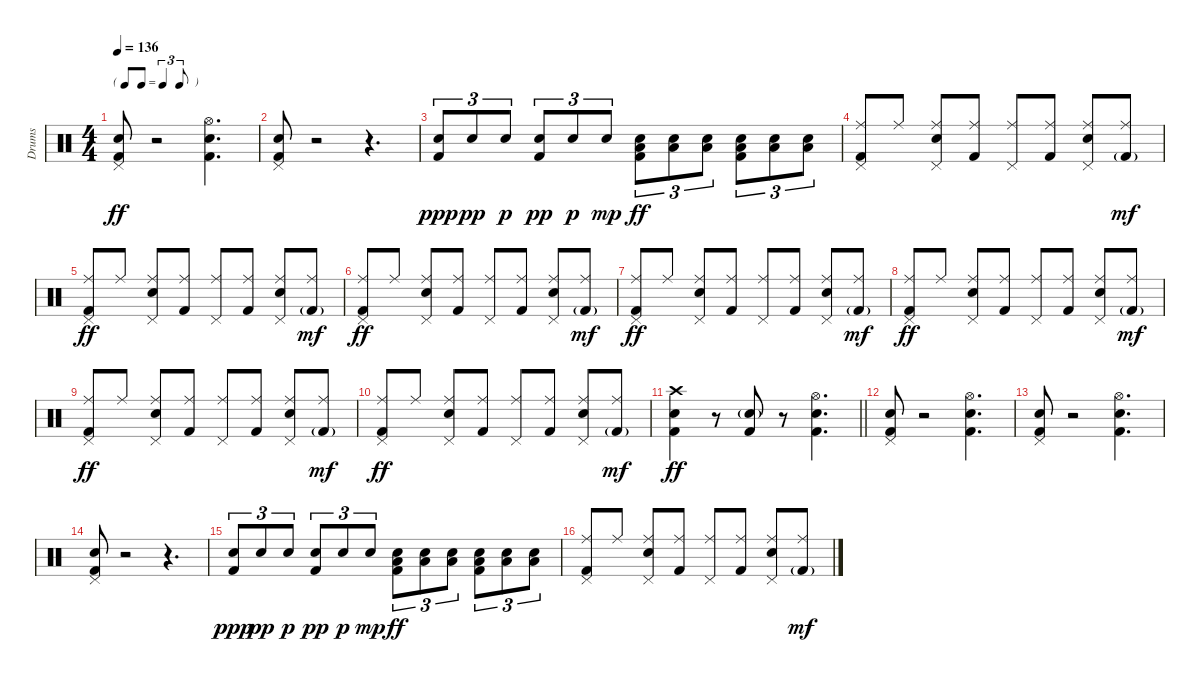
\track ("Drums" "Drums") {instrument percussion}
\staff {score}
\articulation defaults
\ts (4 4)
\tf triplet8th
\tempo 136
\clef neutral
\ks c
("Pedal Hi-Hat (hit)" "Snare (hit) 2" "Kick (hit) 2").8{dy ff} r.2 ("Hi-Hat (open)" "Snare (hit) 2" "Kick (hit) 2").4{d} |
("Pedal Hi-Hat (hit)" "Snare (hit) 2" "Kick (hit) 2").8 r.2 r.4{d} |
("Snare (hit) 2" "Kick (hit) 2").8{tu (3 2) dy ppp} "Snare (hit) 2".8{tu (3 2) dy pp} "Snare (hit) 2".8{tu (3 2) dy p} ("Snare (hit) 2" "Kick (hit) 2").8{tu (3 2) dy pp} "Snare (hit) 2".8{tu (3 2) dy p} "Snare (hit) 2".8{tu (3 2) dy mp} ("Snare (hit) 2" "Low Floor Tom (hit)" "Kick (hit) 2").8{tu (3 2) dy ff} ("Snare (hit) 2" "Low Floor Tom (hit)").8{tu (3 2)} ("Snare (hit) 2" "Low Floor Tom (hit)").8{tu (3 2)} ("Snare (hit) 2" "Low Floor Tom (hit)" "Kick (hit) 2").8{tu (3 2)} ("Snare (hit) 2" "Low Floor Tom (hit)").8{tu (3 2)} ("Snare (hit) 2" "Low Floor Tom (hit)").8{tu (3 2)} |
("Ride (middle)" "Pedal Hi-Hat (hit)" "Kick (hit) 2").8 "Ride (middle)".8 ("Ride (middle)" "Pedal Hi-Hat (hit)" "Snare (hit) 2").8 ("Ride (middle)" "Kick (hit) 2").8 ("Ride (middle)" "Pedal Hi-Hat (hit)").8 ("Ride (middle)" "Kick (hit) 2").8 ("Ride (middle)" "Pedal Hi-Hat (hit)" "Snare (hit) 2").8 ("Ride (middle)" "Kick (hit) 2"{g}).8{dy mf} |
("Ride (middle)" "Pedal Hi-Hat (hit)" "Kick (hit) 2").8{dy ff} "Ride (middle)".8 ("Ride (middle)" "Pedal Hi-Hat (hit)" "Snare (hit) 2").8 ("Ride (middle)" "Kick (hit) 2").8 ("Ride (middle)" "Pedal Hi-Hat (hit)").8 ("Ride (middle)" "Kick (hit) 2").8 ("Ride (middle)" "Pedal Hi-Hat (hit)" "Snare (hit) 2").8 ("Ride (middle)" "Kick (hit) 2"{g}).8{dy mf} |
("Ride (middle)" "Pedal Hi-Hat (hit)" "Kick (hit) 2").8{dy ff} "Ride (middle)".8 ("Ride (middle)" "Pedal Hi-Hat (hit)" "Snare (hit) 2").8 ("Ride (middle)" "Kick (hit) 2").8 ("Ride (middle)" "Pedal Hi-Hat (hit)").8 ("Ride (middle)" "Kick (hit) 2").8 ("Ride (middle)" "Pedal Hi-Hat (hit)" "Snare (hit) 2").8 ("Ride (middle)" "Kick (hit) 2"{g}).8{dy mf} |
("Ride (middle)" "Pedal Hi-Hat (hit)" "Kick (hit) 2").8{dy ff} "Ride (middle)".8 ("Ride (middle)" "Pedal Hi-Hat (hit)" "Snare (hit) 2").8 ("Ride (middle)" "Kick (hit) 2").8 ("Ride (middle)" "Pedal Hi-Hat (hit)").8 ("Ride (middle)" "Kick (hit) 2").8 ("Ride (middle)" "Pedal Hi-Hat (hit)" "Snare (hit) 2").8 ("Ride (middle)" "Kick (hit) 2"{g}).8{dy mf} |
("Ride (middle)" "Pedal Hi-Hat (hit)" "Kick (hit) 2").8{dy ff} "Ride (middle)".8 ("Ride (middle)" "Pedal Hi-Hat (hit)" "Snare (hit) 2").8 ("Ride (middle)" "Kick (hit) 2").8 ("Ride (middle)" "Pedal Hi-Hat (hit)").8 ("Ride (middle)" "Kick (hit) 2").8 ("Ride (middle)" "Pedal Hi-Hat (hit)" "Snare (hit) 2").8 ("Ride (middle)" "Kick (hit) 2"{g}).8{dy mf} |
("Ride (middle)" "Pedal Hi-Hat (hit)" "Kick (hit) 2").8{dy ff} "Ride (middle)".8 ("Ride (middle)" "Pedal Hi-Hat (hit)" "Snare (hit) 2").8 ("Ride (middle)" "Kick (hit) 2").8 ("Ride (middle)" "Pedal Hi-Hat (hit)").8 ("Ride (middle)" "Kick (hit) 2").8 ("Ride (middle)" "Pedal Hi-Hat (hit)" "Snare (hit) 2").8 ("Ride (middle)" "Kick (hit) 2"{g}).8{dy mf} |
("Ride (middle)" "Pedal Hi-Hat (hit)" "Kick (hit) 2").8{dy ff} "Ride (middle)".8 ("Ride (middle)" "Pedal Hi-Hat (hit)" "Snare (hit) 2").8 ("Ride (middle)" "Kick (hit) 2").8 ("Ride (middle)" "Pedal Hi-Hat (hit)").8 ("Ride (middle)" "Kick (hit) 2").8 ("Ride (middle)" "Pedal Hi-Hat (hit)" "Snare (hit) 2").8 ("Ride (middle)" "Kick (hit) 2"{g}).8{dy mf} |
\barLineRight lightlight
("Crash high (hit)" "Snare (hit) 2" "Kick (hit) 2").4{dy ff} r.8 ("Snare (hit) 2"{g} "Kick (hit) 2").8 r.8 ("Hi-Hat (open)" "Snare (hit) 2" "Kick (hit) 2").4{d} |
("Pedal Hi-Hat (hit)" "Snare (hit) 2" "Kick (hit) 2").8 r.2 ("Hi-Hat (open)" "Snare (hit) 2" "Kick (hit) 2").4{d} |
("Pedal Hi-Hat (hit)" "Snare (hit) 2" "Kick (hit) 2").8 r.2 ("Hi-Hat (open)" "Snare (hit) 2" "Kick (hit) 2").4{d} |
("Pedal Hi-Hat (hit)" "Snare (hit) 2" "Kick (hit) 2").8 r.2 r.4{d} |
("Snare (hit) 2" "Kick (hit) 2").8{tu (3 2) dy ppp} "Snare (hit) 2".8{tu (3 2) dy pp} "Snare (hit) 2".8{tu (3 2) dy p} ("Snare (hit) 2" "Kick (hit) 2").8{tu (3 2) dy pp} "Snare (hit) 2".8{tu (3 2) dy p} "Snare (hit) 2".8{tu (3 2) dy mp} ("Snare (hit) 2" "Low Floor Tom (hit)" "Kick (hit) 2").8{tu (3 2) dy ff} ("Snare (hit) 2" "Low Floor Tom (hit)").8{tu (3 2)} ("Snare (hit) 2" "Low Floor Tom (hit)").8{tu (3 2)} ("Snare (hit) 2" "Low Floor Tom (hit)" "Kick (hit) 2").8{tu (3 2)} ("Snare (hit) 2" "Low Floor Tom (hit)").8{tu (3 2)} ("Snare (hit) 2" "Low Floor Tom (hit)").8{tu (3 2)} |
("Ride (middle)" "Pedal Hi-Hat (hit)" "Kick (hit) 2").8 "Ride (middle)".8 ("Ride (middle)" "Pedal Hi-Hat (hit)" "Snare (hit) 2").8 ("Ride (middle)" "Kick (hit) 2").8 ("Ride (middle)" "Pedal Hi-Hat (hit)").8 ("Ride (middle)" "Kick (hit) 2").8 ("Ride (middle)" "Pedal Hi-Hat (hit)" "Snare (hit) 2").8 ("Ride (middle)" "Kick (hit) 2"{g}).8{dy mf}
